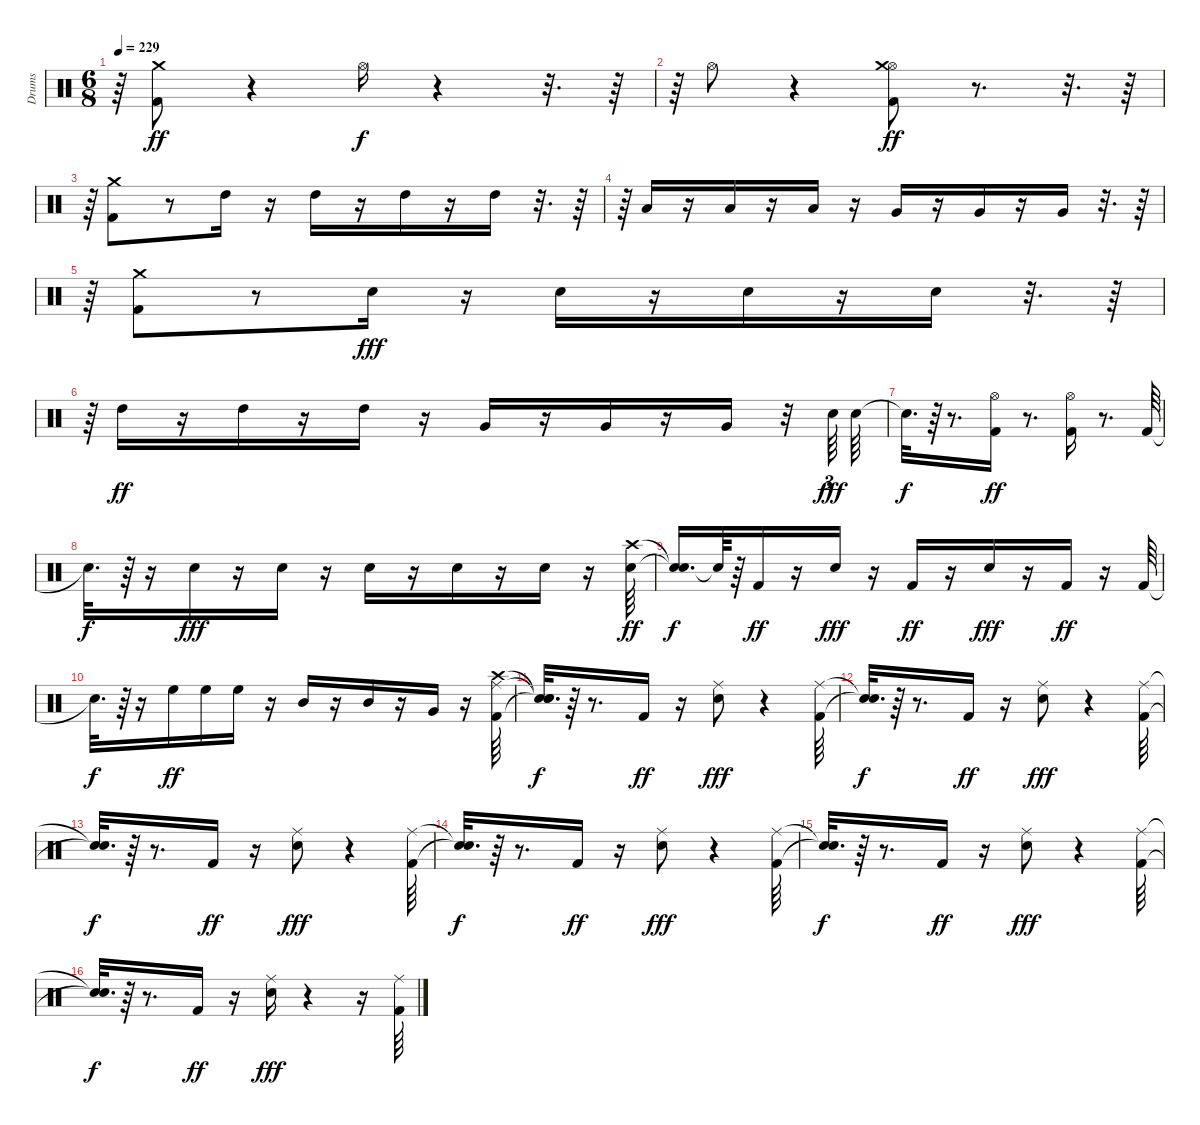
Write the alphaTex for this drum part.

\track ("Drums" "Drums") {instrument percussion}
\staff {score}
\articulation defaults
\ts (6 8)
\tempo 229
\clef neutral
\ks c
r.64{dy ff} ("Kick (hit) 2" "Crash medium (hit)").8{volume 16} r.4 "Hi-Hat (open)".16{dy f} r.4 r.32{d} r.64 |
r.64 "Hi-Hat (open)".8 r.4 ("Kick (hit) 2" "Hi-Hat (open)" "Crash medium (hit)").8{dy ff} r.8{d} r.32{d} r.64 |
r.64 ("Kick (hit) 2" "Crash medium (hit)").8 r.8 "High Tom (hit)".16 r.16 "High Tom (hit)".16 r.16 "High Tom (hit)".16 r.16 "High Tom (hit)".16 r.32{d} r.64 |
r.64 "Low Tom (hit)".16 r.16 "Low Tom (hit)".16 r.16 "Low Tom (hit)".16 r.16 "Very Low Tom (hit)".16 r.16 "Very Low Tom (hit)".16 r.16 "Very Low Tom (hit)".16 r.32{d} r.64 |
r.64 ("Kick (hit) 2" "Crash medium (hit)").8 r.8 "Snare (hit) 2".16{dy fff} r.16 "Snare (hit) 2".16 r.16 "Snare (hit) 2".16 r.16 "Snare (hit) 2".16 r.32{d} r.64 |
r.64 "High Tom (hit)".16{dy ff} r.16 "High Tom (hit)".16 r.16 "High Tom (hit)".16 r.16 "Very Low Tom (hit)".16 r.16 "Very Low Tom (hit)".16 r.16 "Very Low Tom (hit)".16 r.32 "Snare (hit) 2".64{tu (3 2) dy fff} "Snare (hit) 2".64 |
"Snare (hit)"{t}.32{d dy f} r.64 r.8{d} ("Kick (hit) 2" "Hi-Hat (open)").16{dy ff} r.8{d} ("Kick (hit) 2" "Hi-Hat (open)").16 r.8{d} "Kick (hit) 2".64 |
"Snare (hit)"{t}.32{d dy f} r.64 r.16 "Snare (hit) 2".16{dy fff} r.16 "Snare (hit) 2".16 r.16 "Snare (hit) 2".16 r.16 "Snare (hit) 2".16 r.16 "Snare (hit) 2".16 r.16 ("Snare (hit) 2" "Crash high (hit)").64{dy ff} |
("Snare (hit)"{t} "Snare (hit)"{t}).16{d dy f} "Snare (hit)"{t}.64 r.64 "Kick (hit) 2".16{dy ff} r.16 "Snare (hit) 2".16{dy fff} r.16 "Kick (hit) 2".16{dy ff} r.16 "Snare (hit) 2".16{dy fff} r.16 "Kick (hit) 2".16{dy ff} r.16 "Kick (hit) 2".64 |
"Snare (hit)"{t}.32{d dy f} r.64 r.16 "High Floor Tom (hit)".16{dy ff} "High Floor Tom (hit)".16 "High Floor Tom (hit)".16 r.16 "Mid Tom (hit)".16 r.16 "Mid Tom (hit)".16 r.16 "Very Low Tom (hit)".16 r.16 ("Kick (hit) 2" "Ride (middle)" "Crash high (hit)").64 |
("Snare (hit)"{t} "Snare (hit)"{t} "Snare (hit)"{t}).32{d dy f} r.64 r.8{d} "Kick (hit) 2".16{dy ff} r.16 ("Snare (hit) 2" "Ride (middle)").8{dy fff} r.4 ("Kick (hit) 2" "Ride (middle)").64 |
("Snare (hit)"{t} "Snare (hit)"{t}).32{d dy f} r.64 r.8{d} "Kick (hit) 2".16{dy ff} r.16 ("Snare (hit) 2" "Ride (middle)").8{dy fff} r.4 ("Kick (hit) 2" "Ride (middle)").64 |
("Snare (hit)"{t} "Snare (hit)"{t}).32{d dy f} r.64 r.8{d} "Kick (hit) 2".16{dy ff} r.16 ("Snare (hit) 2" "Ride (middle)").8{dy fff} r.4 ("Kick (hit) 2" "Ride (middle)").64 |
("Snare (hit)"{t} "Snare (hit)"{t}).32{d dy f} r.64 r.8{d} "Kick (hit) 2".16{dy ff} r.16 ("Snare (hit) 2" "Ride (middle)").8{dy fff} r.4 ("Kick (hit) 2" "Ride (middle)").64 |
("Snare (hit)"{t} "Snare (hit)"{t}).32{d dy f} r.64 r.8{d} "Kick (hit) 2".16{dy ff} r.16 ("Snare (hit) 2" "Ride (middle)").8{dy fff} r.4 ("Kick (hit) 2" "Ride (middle)").64 |
("Snare (hit)"{t} "Snare (hit)"{t}).32{d dy f} r.64 r.8{d} "Kick (hit) 2".16{dy ff} r.16 ("Snare (hit) 2" "Ride (middle)").16{dy fff} r.4 r.16 ("Kick (hit) 2" "Ride (middle)").64
